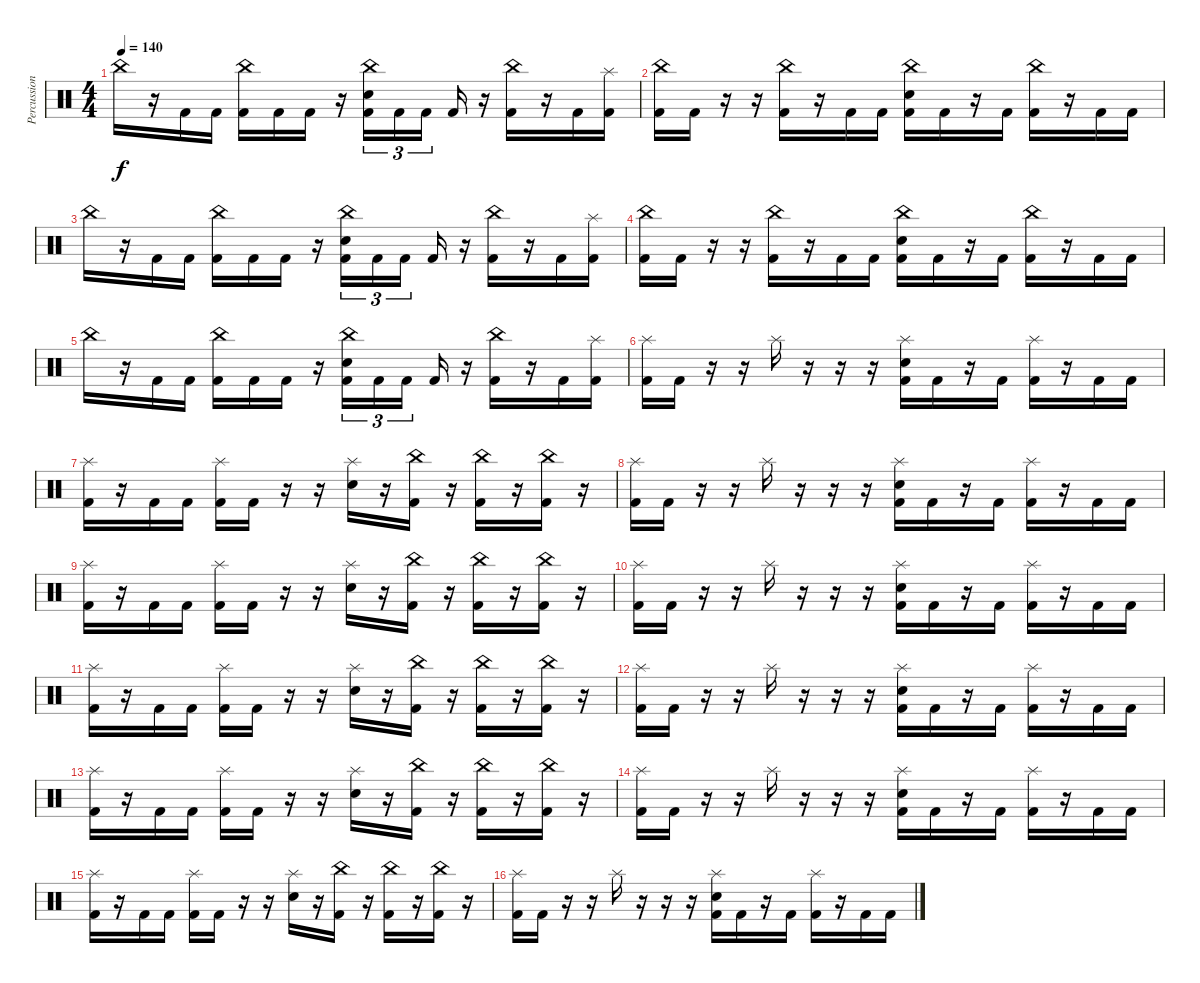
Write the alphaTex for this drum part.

\track ("Percussion" "Percussion") {instrument percussion}
\staff {score}
\articulation defaults
\ts (4 4)
\tempo 140
\clef neutral
\ks c "China (hit)".16{dy f}
r.16 "Kick (hit) 2".16 "Kick (hit) 2".16 ("China (hit)" "Kick (hit) 2").16 "Kick (hit) 2".16 "Kick (hit) 2".16 r.16 ("China (hit)" "Snare (hit) 2" "Kick (hit) 2").16{tu (3 2)} "Kick (hit) 2".16{tu (3 2)} "Kick (hit) 2".16{tu (3 2) beam splitsecondary} "Kick (hit) 2".16 r.16 ("China (hit)" "Kick (hit) 2").16 r.16 "Kick (hit) 2".16 ("Splash (hit)" "Kick (hit) 2").16 |
("China (hit)" "Kick (hit) 2").16 "Kick (hit) 2".16 r.16 r.16 ("China (hit)" "Kick (hit) 2").16 r.16 "Kick (hit) 2".16 "Kick (hit) 2".16 ("China (hit)" "Snare (hit) 2" "Kick (hit) 2").16 "Kick (hit) 2".16 r.16 "Kick (hit) 2".16 ("China (hit)" "Kick (hit) 2").16 r.16 "Kick (hit) 2".16 "Kick (hit) 2".16 |
"China (hit)".16 r.16 "Kick (hit) 2".16 "Kick (hit) 2".16 ("China (hit)" "Kick (hit) 2").16 "Kick (hit) 2".16 "Kick (hit) 2".16 r.16 ("China (hit)" "Snare (hit) 2" "Kick (hit) 2").16{tu (3 2)} "Kick (hit) 2".16{tu (3 2)} "Kick (hit) 2".16{tu (3 2) beam splitsecondary} "Kick (hit) 2".16 r.16 ("China (hit)" "Kick (hit) 2").16 r.16 "Kick (hit) 2".16 ("Splash (hit)" "Kick (hit) 2").16 |
("China (hit)" "Kick (hit) 2").16 "Kick (hit) 2".16 r.16 r.16 ("China (hit)" "Kick (hit) 2").16 r.16 "Kick (hit) 2".16 "Kick (hit) 2".16 ("China (hit)" "Snare (hit) 2" "Kick (hit) 2").16 "Kick (hit) 2".16 r.16 "Kick (hit) 2".16 ("China (hit)" "Kick (hit) 2").16 r.16 "Kick (hit) 2".16 "Kick (hit) 2".16 |
"China (hit)".16 r.16 "Kick (hit) 2".16 "Kick (hit) 2".16 ("China (hit)" "Kick (hit) 2").16 "Kick (hit) 2".16 "Kick (hit) 2".16 r.16 ("China (hit)" "Snare (hit) 2" "Kick (hit) 2").16{tu (3 2)} "Kick (hit) 2".16{tu (3 2)} "Kick (hit) 2".16{tu (3 2) beam splitsecondary} "Kick (hit) 2".16 r.16 ("China (hit)" "Kick (hit) 2").16 r.16 "Kick (hit) 2".16 ("Splash (hit)" "Kick (hit) 2").16 |
("Splash (hit)" "Kick (hit) 2").16 "Kick (hit) 2".16 r.16 r.16 "Splash (hit)".16 r.16 r.16 r.16 ("Splash (hit)" "Snare (hit) 2" "Kick (hit) 2").16 "Kick (hit) 2".16 r.16 "Kick (hit) 2".16 ("Splash (hit)" "Kick (hit) 2").16 r.16 "Kick (hit) 2".16 "Kick (hit) 2".16 |
("Splash (hit)" "Kick (hit) 2").16 r.16 "Kick (hit) 2".16 "Kick (hit) 2".16 ("Splash (hit)" "Kick (hit) 2").16 "Kick (hit) 2".16 r.16 r.16 ("Splash (hit)" "Snare (hit) 2").16 r.16 ("China (hit)" "Kick (hit) 2").16 r.16 ("China (hit)" "Kick (hit) 2").16 r.16 ("China (hit)" "Kick (hit) 2").16 r.16 |
("Splash (hit)" "Kick (hit) 2").16 "Kick (hit) 2".16 r.16 r.16 "Splash (hit)".16 r.16 r.16 r.16 ("Splash (hit)" "Snare (hit) 2" "Kick (hit) 2").16 "Kick (hit) 2".16 r.16 "Kick (hit) 2".16 ("Splash (hit)" "Kick (hit) 2").16 r.16 "Kick (hit) 2".16 "Kick (hit) 2".16 |
("Splash (hit)" "Kick (hit) 2").16 r.16 "Kick (hit) 2".16 "Kick (hit) 2".16 ("Splash (hit)" "Kick (hit) 2").16 "Kick (hit) 2".16 r.16 r.16 ("Splash (hit)" "Snare (hit) 2").16 r.16 ("China (hit)" "Kick (hit) 2").16 r.16 ("China (hit)" "Kick (hit) 2").16 r.16 ("China (hit)" "Kick (hit) 2").16 r.16 |
("Splash (hit)" "Kick (hit) 2").16 "Kick (hit) 2".16 r.16 r.16 "Splash (hit)".16 r.16 r.16 r.16 ("Splash (hit)" "Snare (hit) 2" "Kick (hit) 2").16 "Kick (hit) 2".16 r.16 "Kick (hit) 2".16 ("Splash (hit)" "Kick (hit) 2").16 r.16 "Kick (hit) 2".16 "Kick (hit) 2".16 |
("Splash (hit)" "Kick (hit) 2").16 r.16 "Kick (hit) 2".16 "Kick (hit) 2".16 ("Splash (hit)" "Kick (hit) 2").16 "Kick (hit) 2".16 r.16 r.16 ("Splash (hit)" "Snare (hit) 2").16 r.16 ("China (hit)" "Kick (hit) 2").16 r.16 ("China (hit)" "Kick (hit) 2").16 r.16 ("China (hit)" "Kick (hit) 2").16 r.16 |
("Splash (hit)" "Kick (hit) 2").16 "Kick (hit) 2".16 r.16 r.16 "Splash (hit)".16 r.16 r.16 r.16 ("Splash (hit)" "Snare (hit) 2" "Kick (hit) 2").16 "Kick (hit) 2".16 r.16 "Kick (hit) 2".16 ("Splash (hit)" "Kick (hit) 2").16 r.16 "Kick (hit) 2".16 "Kick (hit) 2".16 |
("Splash (hit)" "Kick (hit) 2").16 r.16 "Kick (hit) 2".16 "Kick (hit) 2".16 ("Splash (hit)" "Kick (hit) 2").16 "Kick (hit) 2".16 r.16 r.16 ("Splash (hit)" "Snare (hit) 2").16 r.16 ("China (hit)" "Kick (hit) 2").16 r.16 ("China (hit)" "Kick (hit) 2").16 r.16 ("China (hit)" "Kick (hit) 2").16 r.16 |
("Splash (hit)" "Kick (hit) 2").16 "Kick (hit) 2".16 r.16 r.16 "Splash (hit)".16 r.16 r.16 r.16 ("Splash (hit)" "Snare (hit) 2" "Kick (hit) 2").16 "Kick (hit) 2".16 r.16 "Kick (hit) 2".16 ("Splash (hit)" "Kick (hit) 2").16 r.16 "Kick (hit) 2".16 "Kick (hit) 2".16 |
("Splash (hit)" "Kick (hit) 2").16 r.16 "Kick (hit) 2".16 "Kick (hit) 2".16 ("Splash (hit)" "Kick (hit) 2").16 "Kick (hit) 2".16 r.16 r.16 ("Splash (hit)" "Snare (hit) 2").16 r.16 ("China (hit)" "Kick (hit) 2").16 r.16 ("China (hit)" "Kick (hit) 2").16 r.16 ("China (hit)" "Kick (hit) 2").16 r.16 |
("Splash (hit)" "Kick (hit) 2").16 "Kick (hit) 2".16 r.16 r.16 "Splash (hit)".16 r.16 r.16 r.16 ("Splash (hit)" "Snare (hit) 2" "Kick (hit) 2").16 "Kick (hit) 2".16 r.16 "Kick (hit) 2".16 ("Splash (hit)" "Kick (hit) 2").16 r.16 "Kick (hit) 2".16 "Kick (hit) 2".16
